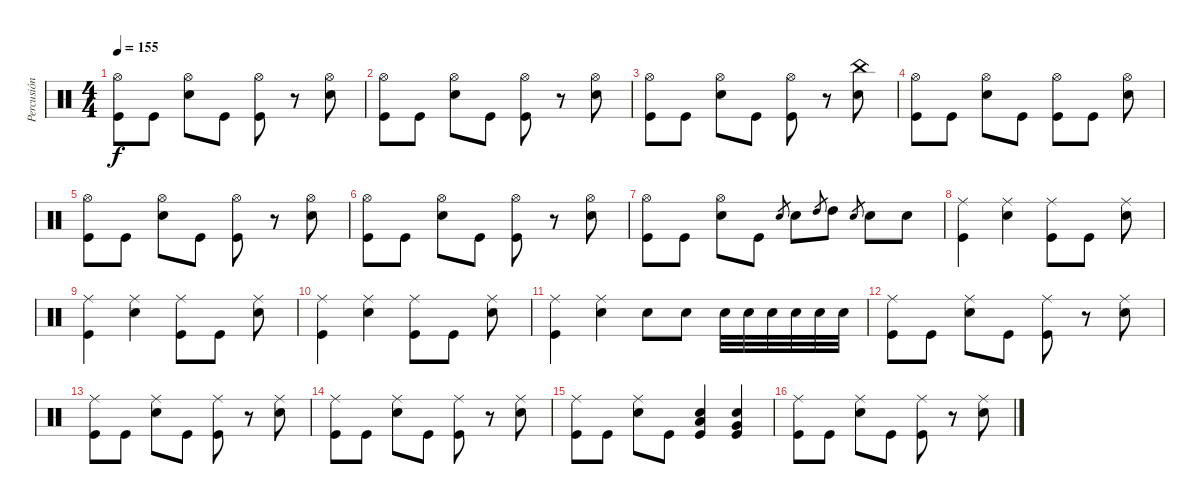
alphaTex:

\track ("Percusión" "Percusión") {instrument percussion}
\staff {score}
\articulation defaults
\ts (4 4)
\tempo 155
\clef neutral
\ks c
("Kick (hit)" "Hi-Hat (open)").8{dy f} "Kick (hit)".8 ("Snare (hit) 2" "Hi-Hat (open)").8 "Kick (hit)".8 ("Kick (hit)" "Hi-Hat (open)").8 r.8 ("Snare (hit) 2" "Hi-Hat (open)").8 |
("Kick (hit)" "Hi-Hat (open)").8 "Kick (hit)".8 ("Snare (hit) 2" "Hi-Hat (open)").8 "Kick (hit)".8 ("Kick (hit)" "Hi-Hat (open)").8 r.8 ("Snare (hit) 2" "Hi-Hat (open)").8 |
("Kick (hit)" "Hi-Hat (open)").8 "Kick (hit)".8 ("Snare (hit) 2" "Hi-Hat (open)").8 "Kick (hit)".8 ("Kick (hit)" "Hi-Hat (open)").8 r.8 ("Snare (hit) 2" "China (hit)").8 |
("Kick (hit)" "Hi-Hat (open)").8 "Kick (hit)".8 ("Snare (hit) 2" "Hi-Hat (open)").8 "Kick (hit)".8 ("Kick (hit)" "Hi-Hat (open)").8 "Kick (hit)".8 ("Snare (hit) 2" "Hi-Hat (open)").8 |
("Kick (hit)" "Hi-Hat (open)").8 "Kick (hit)".8 ("Snare (hit) 2" "Hi-Hat (open)").8 "Kick (hit)".8 ("Kick (hit)" "Hi-Hat (open)").8 r.8 ("Snare (hit) 2" "Hi-Hat (open)").8 |
("Kick (hit)" "Hi-Hat (open)").8 "Kick (hit)".8 ("Snare (hit) 2" "Hi-Hat (open)").8 "Kick (hit)".8 ("Kick (hit)" "Hi-Hat (open)").8 r.8 ("Snare (hit) 2" "Hi-Hat (open)").8 |
("Kick (hit)" "Hi-Hat (open)").8 "Kick (hit)".8 ("Snare (hit) 2" "Hi-Hat (open)").8 "Kick (hit)".8 "Snare (hit) 2".8{gr} "Snare (hit) 2".8 "High Tom (hit)".8{gr} "High Tom (hit)".8 "Snare (hit) 2".8{gr} "Snare (hit) 2".8 "Snare (hit) 2".8 |
("Kick (hit)" "Ride (middle)").4 ("Snare (hit) 2" "Ride (middle)").4 ("Kick (hit)" "Ride (middle)").8 "Kick (hit)".8 ("Snare (hit) 2" "Ride (middle)").8 |
("Kick (hit)" "Ride (middle)").4 ("Snare (hit) 2" "Ride (middle)").4 ("Kick (hit)" "Ride (middle)").8 "Kick (hit)".8 ("Snare (hit) 2" "Ride (middle)").8 |
("Kick (hit)" "Ride (middle)").4 ("Snare (hit) 2" "Ride (middle)").4 ("Kick (hit)" "Ride (middle)").8 "Kick (hit)".8 ("Snare (hit) 2" "Ride (middle)").8 |
("Kick (hit)" "Ride (middle)").4 ("Snare (hit) 2" "Ride (middle)").4 "Snare (hit) 2".8 "Snare (hit) 2".8 "Snare (hit) 2".32 "Snare (hit) 2".32 "Snare (hit) 2".32 "Snare (hit) 2".32 "Snare (hit) 2".32 "Snare (hit) 2".32 |
("Kick (hit)" "Ride (middle)").8 "Kick (hit)".8 ("Snare (hit) 2" "Ride (middle)").8 "Kick (hit)".8 ("Kick (hit)" "Ride (middle)").8 r.8 ("Snare (hit) 2" "Ride (middle)").8 |
("Kick (hit)" "Ride (middle)").8 "Kick (hit)".8 ("Snare (hit) 2" "Ride (middle)").8 "Kick (hit)".8 ("Kick (hit)" "Ride (middle)").8 r.8 ("Snare (hit) 2" "Ride (middle)").8 |
("Kick (hit)" "Ride (middle)").8 "Kick (hit)".8 ("Snare (hit) 2" "Ride (middle)").8 "Kick (hit)".8 ("Kick (hit)" "Ride (middle)").8 r.8 ("Snare (hit) 2" "Ride (middle)").8 |
("Kick (hit)" "Ride (middle)").8 "Kick (hit)".8 ("Snare (hit) 2" "Ride (middle)").8 "Kick (hit)".8 ("Kick (hit)" "Snare (hit) 2" "Low Floor Tom (hit)").4 ("Snare (hit) 2" "Kick (hit)" "Very Low Tom (hit)").4 |
("Kick (hit)" "Ride (middle)").8 "Kick (hit)".8 ("Snare (hit) 2" "Ride (middle)").8 "Kick (hit)".8 ("Kick (hit)" "Ride (middle)").8 r.8 ("Snare (hit) 2" "Ride (middle)").8
